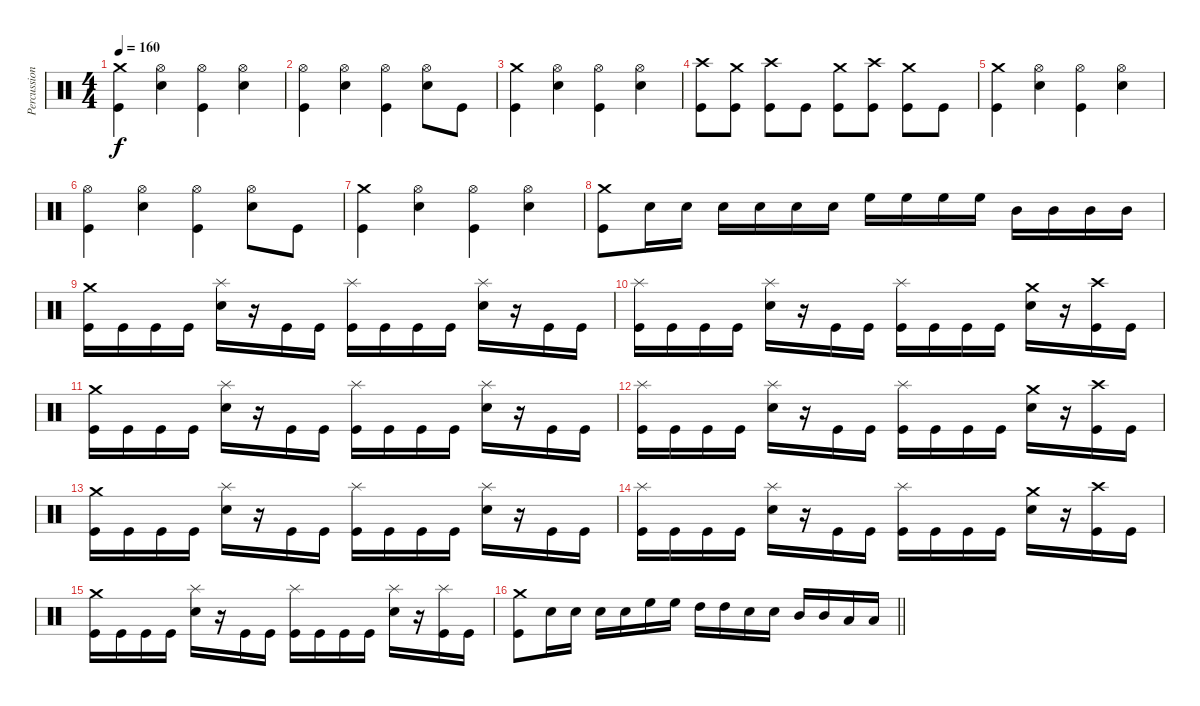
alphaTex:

\track ("Percussion" "Percussion") {instrument percussion}
\staff {score}
\articulation defaults
\ts (4 4)
\tempo 160
\clef neutral
\ks c
("Crash medium (hit)" "Kick (hit)").4{dy f} ("Hi-Hat (open)" "Snare (hit) 2").4 ("Hi-Hat (open)" "Kick (hit)").4 ("Hi-Hat (open)" "Snare (hit) 2").4 |
("Hi-Hat (open)" "Kick (hit)").4 ("Hi-Hat (open)" "Snare (hit) 2").4 ("Hi-Hat (open)" "Kick (hit)").4 ("Hi-Hat (open)" "Snare (hit) 2").8 "Kick (hit)".8 |
("Crash medium (hit)" "Kick (hit)").4 ("Hi-Hat (open)" "Snare (hit) 2").4 ("Hi-Hat (open)" "Kick (hit)").4 ("Hi-Hat (open)" "Snare (hit) 2").4 |
("Crash high (hit)" "Kick (hit)").8 ("Crash medium (hit)" "Kick (hit)").8 ("Crash high (hit)" "Kick (hit)").8 "Kick (hit)".8 ("Crash medium (hit)" "Kick (hit)").8 ("Crash high (hit)" "Kick (hit)").8 ("Crash medium (hit)" "Kick (hit)").8 "Kick (hit)".8 |
("Crash medium (hit)" "Kick (hit)").4 ("Hi-Hat (open)" "Snare (hit) 2").4 ("Hi-Hat (open)" "Kick (hit)").4 ("Hi-Hat (open)" "Snare (hit) 2").4 |
("Hi-Hat (open)" "Kick (hit)").4 ("Hi-Hat (open)" "Snare (hit) 2").4 ("Hi-Hat (open)" "Kick (hit)").4 ("Hi-Hat (open)" "Snare (hit) 2").8 "Kick (hit)".8 |
("Crash medium (hit)" "Kick (hit)").4 ("Hi-Hat (open)" "Snare (hit) 2").4 ("Hi-Hat (open)" "Kick (hit)").4 ("Hi-Hat (open)" "Snare (hit) 2").4 |
("Crash medium (hit)" "Kick (hit)").8 "Snare (hit) 2".16 "Snare (hit) 2".16 "Snare (hit) 2".16 "Snare (hit) 2".16 "Snare (hit) 2".16 "Snare (hit) 2".16 "High Floor Tom (hit)".16 "High Floor Tom (hit)".16 "High Floor Tom (hit)".16 "High Floor Tom (hit)".16 "Mid Tom (hit)".16 "Mid Tom (hit)".16 "Mid Tom (hit)".16 "Mid Tom (hit)".16 |
("Crash medium (hit)" "Kick (hit)").16 "Kick (hit)".16 "Kick (hit)".16 "Kick (hit)".16 ("Splash (hit)" "Snare (hit) 2").16 r.16 "Kick (hit)".16 "Kick (hit)".16 ("Splash (hit)" "Kick (hit)").16 "Kick (hit)".16 "Kick (hit)".16 "Kick (hit)".16 ("Splash (hit)" "Snare (hit) 2").16 r.16 "Kick (hit)".16 "Kick (hit)".16 |
("Splash (hit)" "Kick (hit)").16 "Kick (hit)".16 "Kick (hit)".16 "Kick (hit)".16 ("Splash (hit)" "Snare (hit) 2").16 r.16 "Kick (hit)".16 "Kick (hit)".16 ("Splash (hit)" "Kick (hit)").16 "Kick (hit)".16 "Kick (hit)".16 "Kick (hit)".16 ("Crash medium (hit)" "Snare (hit) 2").16 r.16 ("Crash high (hit)" "Kick (hit)").16 "Kick (hit)".16 |
("Crash medium (hit)" "Kick (hit)").16 "Kick (hit)".16 "Kick (hit)".16 "Kick (hit)".16 ("Splash (hit)" "Snare (hit) 2").16 r.16 "Kick (hit)".16 "Kick (hit)".16 ("Splash (hit)" "Kick (hit)").16 "Kick (hit)".16 "Kick (hit)".16 "Kick (hit)".16 ("Splash (hit)" "Snare (hit) 2").16 r.16 "Kick (hit)".16 "Kick (hit)".16 |
("Splash (hit)" "Kick (hit)").16 "Kick (hit)".16 "Kick (hit)".16 "Kick (hit)".16 ("Splash (hit)" "Snare (hit) 2").16 r.16 "Kick (hit)".16 "Kick (hit)".16 ("Splash (hit)" "Kick (hit)").16 "Kick (hit)".16 "Kick (hit)".16 "Kick (hit)".16 ("Crash medium (hit)" "Snare (hit) 2").16 r.16 ("Crash high (hit)" "Kick (hit)").16 "Kick (hit)".16 |
("Crash medium (hit)" "Kick (hit)").16 "Kick (hit)".16 "Kick (hit)".16 "Kick (hit)".16 ("Splash (hit)" "Snare (hit) 2").16 r.16 "Kick (hit)".16 "Kick (hit)".16 ("Splash (hit)" "Kick (hit)").16 "Kick (hit)".16 "Kick (hit)".16 "Kick (hit)".16 ("Splash (hit)" "Snare (hit) 2").16 r.16 "Kick (hit)".16 "Kick (hit)".16 |
("Splash (hit)" "Kick (hit)").16 "Kick (hit)".16 "Kick (hit)".16 "Kick (hit)".16 ("Splash (hit)" "Snare (hit) 2").16 r.16 "Kick (hit)".16 "Kick (hit)".16 ("Splash (hit)" "Kick (hit)").16 "Kick (hit)".16 "Kick (hit)".16 "Kick (hit)".16 ("Crash medium (hit)" "Snare (hit) 2").16 r.16 ("Crash high (hit)" "Kick (hit)").16 "Kick (hit)".16 |
("Crash medium (hit)" "Kick (hit)").16 "Kick (hit)".16 "Kick (hit)".16 "Kick (hit)".16 ("Splash (hit)" "Snare (hit) 2").16 r.16 "Kick (hit)".16 "Kick (hit)".16 ("Splash (hit)" "Kick (hit)").16 "Kick (hit)".16 "Kick (hit)".16 "Kick (hit)".16 ("Splash (hit)" "Snare (hit) 2").16 r.16 ("Splash (hit)" "Kick (hit)").16 "Kick (hit)".16 |
\barLineRight lightlight
("Crash medium (hit)" "Kick (hit)").8 "Snare (hit) 2".16 "Snare (hit) 2".16 "Snare (hit) 2".16 "Snare (hit) 2".16 "High Floor Tom (hit)".16 "High Floor Tom (hit)".16 "High Tom (hit)".16 "High Tom (hit)".16 "Snare (hit) 2".16 "Snare (hit) 2".16 "Mid Tom (hit)".16 "Mid Tom (hit)".16 "Low Tom (hit)".16 "Low Tom (hit)".16
